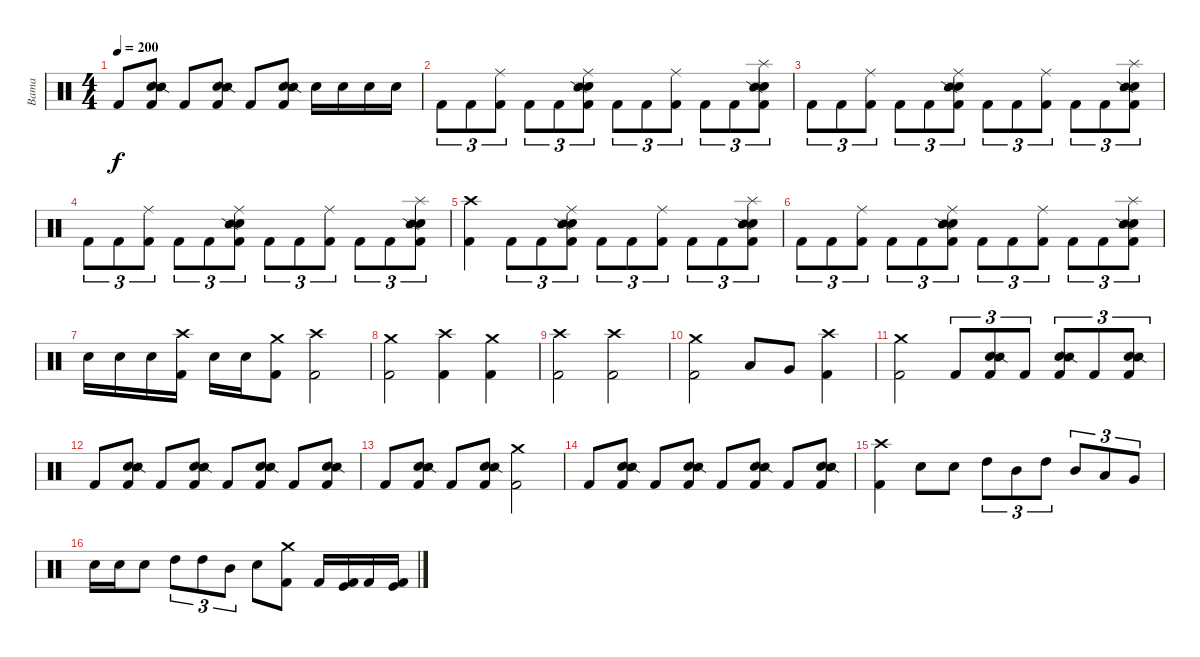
\track ("Bama" "Bama") {instrument percussion}
\staff {score}
\articulation defaults
\ts (4 4)
\tempo 200
\clef neutral
\ks c "Kick (hit) 2".8{dy f}
("Electric Snare (hit)" "Snare (side stick) 2" "Kick (hit) 2").8 "Kick (hit) 2".8 ("Electric Snare (hit)" "Snare (side stick) 2" "Kick (hit) 2").8 "Kick (hit) 2".8 ("Electric Snare (hit)" "Snare (side stick) 2" "Kick (hit) 2").8 "Electric Snare (hit)".16 "Electric Snare (hit)".16 "Electric Snare (hit)".16 "Electric Snare (hit)".16 |
"Kick (hit) 2".8{tu (3 2)} "Kick (hit) 2".8{tu (3 2)} ("Ride (middle)" "Kick (hit) 2").8{tu (3 2)} "Kick (hit) 2".8{tu (3 2)} "Kick (hit) 2".8{tu (3 2)} ("Ride (middle)" "Electric Snare (hit)" "Snare (side stick) 2" "Kick (hit) 2").8{tu (3 2)} "Kick (hit) 2".8{tu (3 2)} "Kick (hit) 2".8{tu (3 2)} ("Ride (middle)" "Kick (hit) 2").8{tu (3 2)} "Kick (hit) 2".8{tu (3 2)} "Kick (hit) 2".8{tu (3 2)} ("Splash (hit)" "Electric Snare (hit)" "Snare (side stick) 2" "Kick (hit) 2").8{tu (3 2)} |
"Kick (hit) 2".8{tu (3 2)} "Kick (hit) 2".8{tu (3 2)} ("Ride (middle)" "Kick (hit) 2").8{tu (3 2)} "Kick (hit) 2".8{tu (3 2)} "Kick (hit) 2".8{tu (3 2)} ("Ride (middle)" "Electric Snare (hit)" "Snare (side stick) 2" "Kick (hit) 2").8{tu (3 2)} "Kick (hit) 2".8{tu (3 2)} "Kick (hit) 2".8{tu (3 2)} ("Ride (middle)" "Kick (hit) 2").8{tu (3 2)} "Kick (hit) 2".8{tu (3 2)} "Kick (hit) 2".8{tu (3 2)} ("Splash (hit)" "Electric Snare (hit)" "Snare (side stick) 2" "Kick (hit) 2").8{tu (3 2)} |
"Kick (hit) 2".8{tu (3 2)} "Kick (hit) 2".8{tu (3 2)} ("Ride (middle)" "Kick (hit) 2").8{tu (3 2)} "Kick (hit) 2".8{tu (3 2)} "Kick (hit) 2".8{tu (3 2)} ("Ride (middle)" "Electric Snare (hit)" "Snare (side stick) 2" "Kick (hit) 2").8{tu (3 2)} "Kick (hit) 2".8{tu (3 2)} "Kick (hit) 2".8{tu (3 2)} ("Ride (middle)" "Kick (hit) 2").8{tu (3 2)} "Kick (hit) 2".8{tu (3 2)} "Kick (hit) 2".8{tu (3 2)} ("Splash (hit)" "Electric Snare (hit)" "Snare (side stick) 2" "Kick (hit) 2").8{tu (3 2)} |
("Crash high (hit)" "Kick (hit) 2").4 "Kick (hit) 2".8{tu (3 2)} "Kick (hit) 2".8{tu (3 2)} ("Ride (middle)" "Electric Snare (hit)" "Snare (side stick) 2" "Kick (hit) 2").8{tu (3 2)} "Kick (hit) 2".8{tu (3 2)} "Kick (hit) 2".8{tu (3 2)} ("Ride (middle)" "Kick (hit) 2").8{tu (3 2)} "Kick (hit) 2".8{tu (3 2)} "Kick (hit) 2".8{tu (3 2)} ("Splash (hit)" "Electric Snare (hit)" "Snare (side stick) 2" "Kick (hit) 2").8{tu (3 2)} |
"Kick (hit) 2".8{tu (3 2)} "Kick (hit) 2".8{tu (3 2)} ("Ride (middle)" "Kick (hit) 2").8{tu (3 2)} "Kick (hit) 2".8{tu (3 2)} "Kick (hit) 2".8{tu (3 2)} ("Ride (middle)" "Electric Snare (hit)" "Snare (side stick) 2" "Kick (hit) 2").8{tu (3 2)} "Kick (hit) 2".8{tu (3 2)} "Kick (hit) 2".8{tu (3 2)} ("Ride (middle)" "Kick (hit) 2").8{tu (3 2)} "Kick (hit) 2".8{tu (3 2)} "Kick (hit) 2".8{tu (3 2)} ("Splash (hit)" "Electric Snare (hit)" "Snare (side stick) 2" "Kick (hit) 2").8{tu (3 2)} |
"Electric Snare (hit)".16 "Electric Snare (hit)".16 "Electric Snare (hit)".16 ("Crash high (hit)" "Kick (hit) 2").16 "Electric Snare (hit)".16 "Electric Snare (hit)".16 ("Crash medium (hit)" "Kick (hit) 2").8 ("Crash high (hit)" "Kick (hit) 2").2 |
("Crash medium (hit)" "Kick (hit) 2").2 ("Crash high (hit)" "Kick (hit) 2").4 ("Crash medium (hit)" "Kick (hit) 2").4 |
("Crash high (hit)" "Kick (hit) 2").2 ("Crash high (hit)" "Kick (hit) 2").2 |
("Crash medium (hit)" "Kick (hit) 2").2 "Low Tom (hit)".8 "Very Low Tom (hit)".8 ("Crash high (hit)" "Kick (hit) 2").4 |
("Crash medium (hit)" "Kick (hit) 2").2 "Kick (hit) 2".8{tu (3 2)} ("Electric Snare (hit)" "Snare (side stick) 2" "Kick (hit) 2").8{tu (3 2)} "Kick (hit) 2".8{tu (3 2)} ("Electric Snare (hit)" "Snare (side stick) 2" "Kick (hit) 2").8{tu (3 2)} "Kick (hit) 2".8{tu (3 2)} ("Electric Snare (hit)" "Snare (side stick) 2" "Kick (hit) 2").8{tu (3 2)} |
"Kick (hit) 2".8 ("Electric Snare (hit)" "Snare (side stick) 2" "Kick (hit) 2").8 "Kick (hit) 2".8 ("Electric Snare (hit)" "Snare (side stick) 2" "Kick (hit) 2").8 "Kick (hit) 2".8 ("Electric Snare (hit)" "Snare (side stick) 2" "Kick (hit) 2").8 "Kick (hit) 2".8 ("Electric Snare (hit)" "Snare (side stick) 2" "Kick (hit) 2").8 |
"Kick (hit) 2".8 ("Electric Snare (hit)" "Snare (side stick) 2" "Kick (hit) 2").8 "Kick (hit) 2".8 ("Electric Snare (hit)" "Snare (side stick) 2" "Kick (hit) 2").8 ("Crash medium (hit)" "Kick (hit) 2").2 |
"Kick (hit) 2".8 ("Electric Snare (hit)" "Snare (side stick) 2" "Kick (hit) 2").8 "Kick (hit) 2".8 ("Electric Snare (hit)" "Snare (side stick) 2" "Kick (hit) 2").8 "Kick (hit) 2".8 ("Electric Snare (hit)" "Snare (side stick) 2" "Kick (hit) 2").8 "Kick (hit) 2".8 ("Electric Snare (hit)" "Snare (side stick) 2" "Kick (hit) 2").8 |
("Crash high (hit)" "Kick (hit) 2").4 "Electric Snare (hit)".8 "Electric Snare (hit)".8 "High Tom (hit)".8{tu (3 2)} "Mid Tom (hit)".8{tu (3 2)} "High Tom (hit)".8{tu (3 2)} "Mid Tom (hit)".8{tu (3 2)} "Low Tom (hit)".8{tu (3 2)} "Very Low Tom (hit)".8{tu (3 2)} |
"Electric Snare (hit)".16 "Electric Snare (hit)".16 "Electric Snare (hit)".8 "High Tom (hit)".8{tu (3 2)} "High Tom (hit)".8{tu (3 2)} "Mid Tom (hit)".8{tu (3 2)} "Electric Snare (hit)".8 ("Crash medium (hit)" "Kick (hit) 2").8 "Kick (hit) 2".16 ("Kick (hit)" "Kick (hit) 2").16 "Kick (hit) 2".16 ("Kick (hit)" "Kick (hit) 2").16
